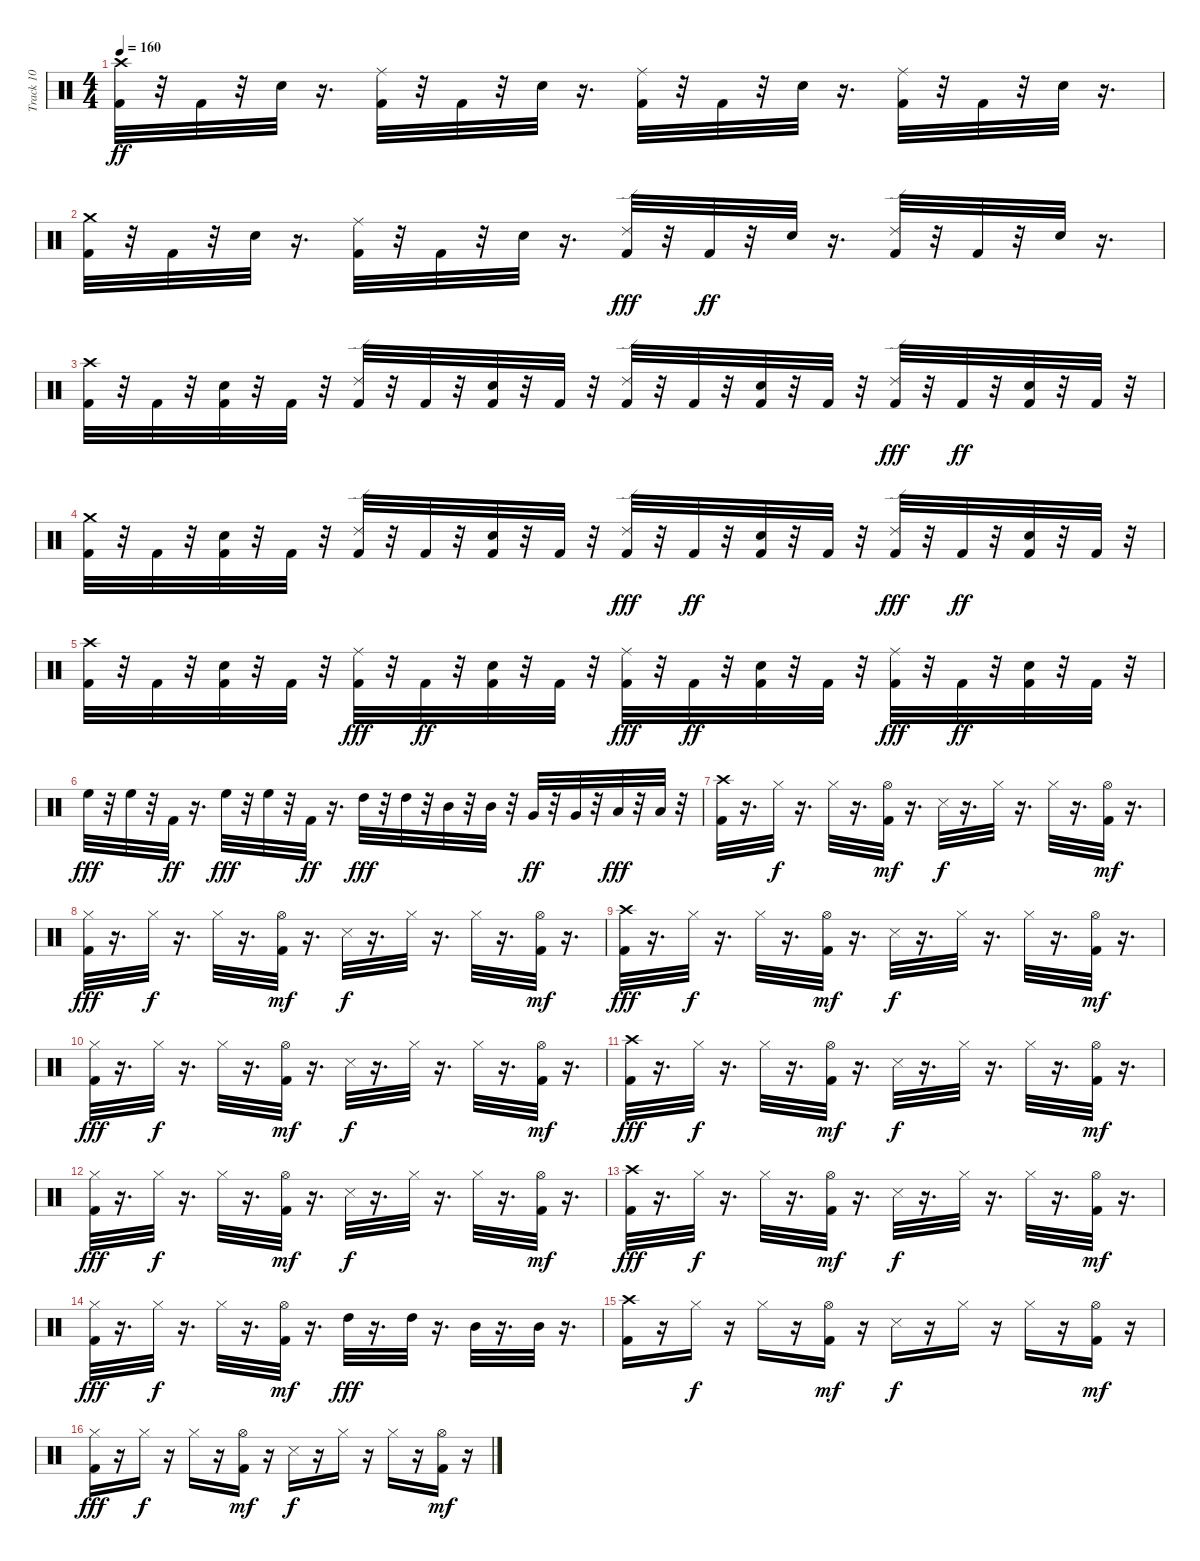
\track ("Track 10" "Track 10") {instrument percussion}
\staff {score}
\articulation defaults
\ts (4 4)
\tempo 160
\clef neutral
\ks c
("Crash high (hit)" "Kick (hit) 2").32{dy ff} r.32 "Kick (hit) 2".32 r.32 "Electric Snare (hit)".32 r.16{d} ("Ride (middle)" "Kick (hit) 2").32 r.32 "Kick (hit) 2".32 r.32 "Electric Snare (hit)".32 r.16{d} ("Ride (middle)" "Kick (hit) 2").32 r.32 "Kick (hit) 2".32 r.32 "Electric Snare (hit)".32 r.16{d} ("Ride (middle)" "Kick (hit) 2").32 r.32 "Kick (hit) 2".32 r.32 "Electric Snare (hit)".32 r.16{d} |
("Crash medium (hit)" "Kick (hit) 2").32 r.32 "Kick (hit) 2".32 r.32 "Electric Snare (hit)".32 r.16{d} ("Ride (middle)" "Kick (hit) 2").32 r.32 "Kick (hit) 2".32 r.32 "Electric Snare (hit)".32 r.16{d} ("Kick (hit) 2" "Ride (edge) 2").32{dy fff} r.32 "Kick (hit) 2".32{dy ff} r.32 "Electric Snare (hit)".32 r.16{d} ("Ride (edge) 2" "Kick (hit) 2").32 r.32 "Kick (hit) 2".32 r.32 "Electric Snare (hit)".32 r.16{d} |
("Crash high (hit)" "Kick (hit) 2").32 r.32 "Kick (hit) 2".32 r.32 ("Electric Snare (hit)" "Kick (hit) 2").32 r.32 "Kick (hit) 2".32 r.32 ("Ride (edge) 2" "Kick (hit) 2").32 r.32 "Kick (hit) 2".32 r.32 ("Kick (hit) 2" "Electric Snare (hit)").32 r.32 "Kick (hit) 2".32 r.32 ("Ride (edge) 2" "Kick (hit) 2").32 r.32 "Kick (hit) 2".32 r.32 ("Electric Snare (hit)" "Kick (hit) 2").32 r.32 "Kick (hit) 2".32 r.32 ("Kick (hit) 2" "Ride (edge) 2").32{dy fff} r.32 "Kick (hit) 2".32{dy ff} r.32 ("Electric Snare (hit)" "Kick (hit) 2").32 r.32 "Kick (hit) 2".32 r.32 |
("Crash medium (hit)" "Kick (hit) 2").32 r.32 "Kick (hit) 2".32 r.32 ("Electric Snare (hit)" "Kick (hit) 2").32 r.32 "Kick (hit) 2".32 r.32 ("Ride (edge) 2" "Kick (hit) 2").32 r.32 "Kick (hit) 2".32 r.32 ("Kick (hit) 2" "Electric Snare (hit)").32 r.32 "Kick (hit) 2".32 r.32 ("Kick (hit) 2" "Ride (edge) 2").32{dy fff} r.32 "Kick (hit) 2".32{dy ff} r.32 ("Kick (hit) 2" "Electric Snare (hit)").32 r.32 "Kick (hit) 2".32 r.32 ("Kick (hit) 2" "Ride (edge) 2").32{dy fff} r.32 "Kick (hit) 2".32{dy ff} r.32 ("Kick (hit) 2" "Electric Snare (hit)").32 r.32 "Kick (hit) 2".32 r.32 |
("Crash high (hit)" "Kick (hit) 2").32 r.32 "Kick (hit) 2".32 r.32 ("Kick (hit) 2" "Electric Snare (hit)").32 r.32 "Kick (hit) 2".32 r.32 ("Kick (hit) 2" "Ride (middle)").32{dy fff} r.32 "Kick (hit) 2".32{dy ff} r.32 ("Kick (hit) 2" "Electric Snare (hit)").32 r.32 "Kick (hit) 2".32 r.32 ("Kick (hit) 2" "Ride (middle)").32{dy fff} r.32 "Kick (hit) 2".32{dy ff} r.32 ("Electric Snare (hit)" "Kick (hit) 2").32 r.32 "Kick (hit) 2".32 r.32 ("Kick (hit) 2" "Ride (middle)").32{dy fff} r.32 "Kick (hit) 2".32{dy ff} r.32 ("Kick (hit) 2" "Electric Snare (hit)").32 r.32 "Kick (hit) 2".32 r.32 |
"High Floor Tom (hit)".32{dy fff} r.32 "High Floor Tom (hit)".32 r.32 "Kick (hit) 2".32{dy ff} r.16{d} "High Floor Tom (hit)".32{dy fff} r.32 "High Floor Tom (hit)".32 r.32 "Kick (hit) 2".32{dy ff} r.16{d} "High Tom (hit)".32{dy fff} r.32 "High Tom (hit)".32 r.32 "Mid Tom (hit)".32 r.32 "Mid Tom (hit)".32 r.32 "Very Low Tom (hit)".32{dy ff} r.32 "Very Low Tom (hit)".32 r.32 "Low Tom (hit)".32{dy fff} r.32 "Low Tom (hit)".32 r.32 |
("Crash high (hit)" "Kick (hit) 2").32 r.16{d} "Hi-Hat (closed)".32{dy f} r.16{d} "Hi-Hat (closed)".32 r.16{d} ("Kick (hit) 2" "Hi-Hat (open)").32{dy mf} r.16{d} "Snare (side stick) 3".32{dy f} r.16{d} "Hi-Hat (closed)".32 r.16{d} "Hi-Hat (closed)".32 r.16{d} ("Hi-Hat (open)" "Kick (hit) 2").32{dy mf} r.16{d} |
("Kick (hit) 2" "Hi-Hat (closed)").32{dy fff} r.16{d} "Hi-Hat (closed)".32{dy f} r.16{d} "Hi-Hat (closed)".32 r.16{d} ("Hi-Hat (open)" "Kick (hit) 2").32{dy mf} r.16{d} "Snare (side stick) 3".32{dy f} r.16{d} "Hi-Hat (closed)".32 r.16{d} "Hi-Hat (closed)".32 r.16{d} ("Kick (hit) 2" "Hi-Hat (open)").32{dy mf} r.16{d} |
("Kick (hit) 2" "Crash high (hit)").32{dy fff} r.16{d} "Hi-Hat (closed)".32{dy f} r.16{d} "Hi-Hat (closed)".32 r.16{d} ("Kick (hit) 2" "Hi-Hat (open)").32{dy mf} r.16{d} "Snare (side stick) 3".32{dy f} r.16{d} "Hi-Hat (closed)".32 r.16{d} "Hi-Hat (closed)".32 r.16{d} ("Kick (hit) 2" "Hi-Hat (open)").32{dy mf} r.16{d} |
("Kick (hit) 2" "Hi-Hat (closed)").32{dy fff} r.16{d} "Hi-Hat (closed)".32{dy f} r.16{d} "Hi-Hat (closed)".32 r.16{d} ("Hi-Hat (open)" "Kick (hit) 2").32{dy mf} r.16{d} "Snare (side stick) 3".32{dy f} r.16{d} "Hi-Hat (closed)".32 r.16{d} "Hi-Hat (closed)".32 r.16{d} ("Hi-Hat (open)" "Kick (hit) 2").32{dy mf} r.16{d} |
("Kick (hit) 2" "Crash high (hit)").32{dy fff} r.16{d} "Hi-Hat (closed)".32{dy f} r.16{d} "Hi-Hat (closed)".32 r.16{d} ("Hi-Hat (open)" "Kick (hit) 2").32{dy mf} r.16{d} "Snare (side stick) 3".32{dy f} r.16{d} "Hi-Hat (closed)".32 r.16{d} "Hi-Hat (closed)".32 r.16{d} ("Hi-Hat (open)" "Kick (hit) 2").32{dy mf} r.16{d} |
("Hi-Hat (closed)" "Kick (hit) 2").32{dy fff} r.16{d} "Hi-Hat (closed)".32{dy f} r.16{d} "Hi-Hat (closed)".32 r.16{d} ("Hi-Hat (open)" "Kick (hit) 2").32{dy mf} r.16{d} "Snare (side stick) 3".32{dy f} r.16{d} "Hi-Hat (closed)".32 r.16{d} "Hi-Hat (closed)".32 r.16{d} ("Kick (hit) 2" "Hi-Hat (open)").32{dy mf} r.16{d} |
("Kick (hit) 2" "Crash high (hit)").32{dy fff} r.16{d} "Hi-Hat (closed)".32{dy f} r.16{d} "Hi-Hat (closed)".32 r.16{d} ("Hi-Hat (open)" "Kick (hit) 2").32{dy mf} r.16{d} "Snare (side stick) 3".32{dy f} r.16{d} "Hi-Hat (closed)".32 r.16{d} "Hi-Hat (closed)".32 r.16{d} ("Kick (hit) 2" "Hi-Hat (open)").32{dy mf} r.16{d} |
("Hi-Hat (closed)" "Kick (hit) 2").32{dy fff} r.16{d} "Hi-Hat (closed)".32{dy f} r.16{d} "Hi-Hat (closed)".32 r.16{d} ("Kick (hit) 2" "Hi-Hat (open)").32{dy mf} r.16{d} "High Tom (hit)".32{dy fff} r.16{d} "High Tom (hit)".32 r.16{d} "Mid Tom (hit)".32 r.16{d} "Mid Tom (hit)".32 r.16{d} |
("Kick (hit) 2" "Crash high (hit)").16 r.16 "Hi-Hat (closed)".16{dy f} r.16 "Hi-Hat (closed)".16 r.16 ("Hi-Hat (open)" "Kick (hit) 2").16{dy mf} r.16 "Snare (side stick) 3".16{dy f} r.16 "Hi-Hat (closed)".16 r.16 "Hi-Hat (closed)".16 r.16 ("Hi-Hat (open)" "Kick (hit) 2").16{dy mf} r.16 |
("Kick (hit) 2" "Hi-Hat (closed)").16{dy fff} r.16 "Hi-Hat (closed)".16{dy f} r.16 "Hi-Hat (closed)".16 r.16 ("Hi-Hat (open)" "Kick (hit) 2").16{dy mf} r.16 "Snare (side stick) 3".16{dy f} r.16 "Hi-Hat (closed)".16 r.16 "Hi-Hat (closed)".16 r.16 ("Hi-Hat (open)" "Kick (hit) 2").16{dy mf} r.16
